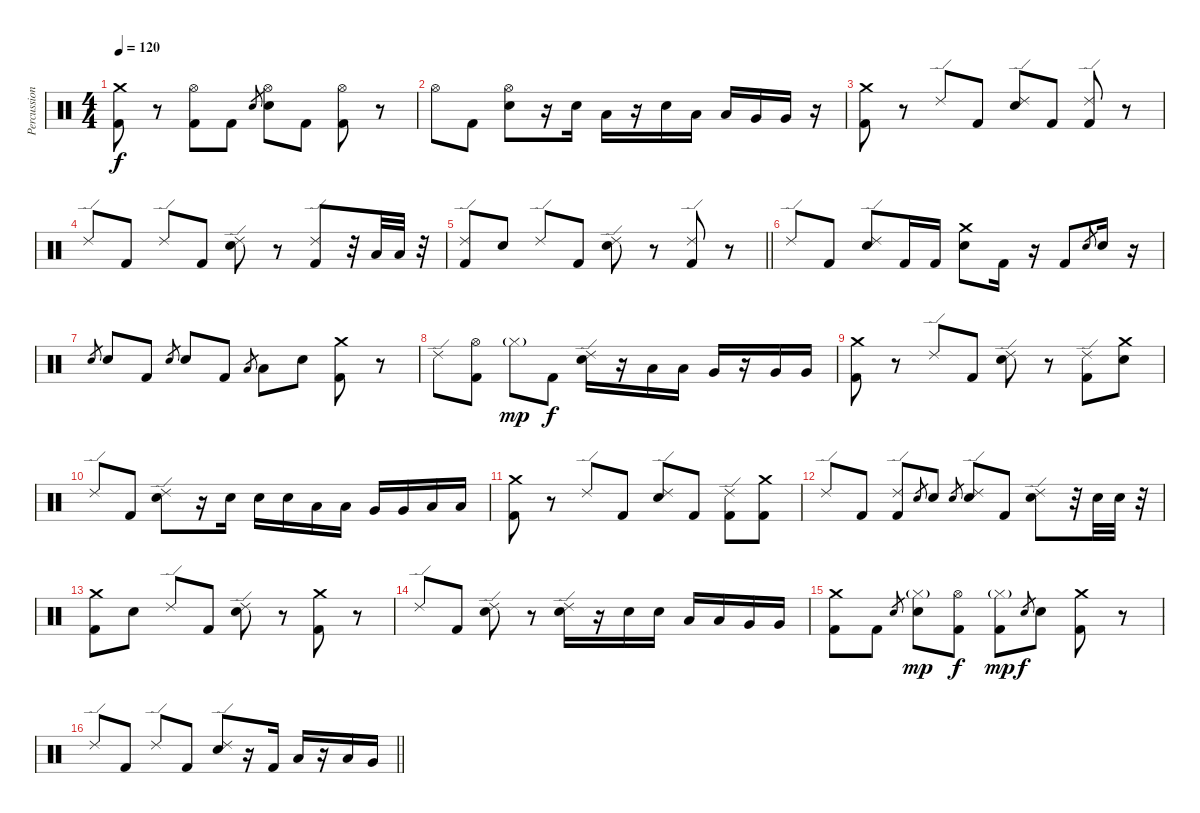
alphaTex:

\track ("Percussion" "Percussion") {instrument percussion}
\staff {score}
\articulation defaults
\ts (4 4)
\tempo 120
\clef neutral
\ks c
("Crash medium (hit)" "Kick (hit) 2").8{dy f} r.8 ("Hi-Hat (open)" "Kick (hit) 2").8 "Kick (hit) 2".8 "Electric Snare (hit)".8{gr} ("Hi-Hat (open)" "Electric Snare (hit)").8 "Kick (hit) 2".8 ("Hi-Hat (open)" "Kick (hit) 2").8 r.8 |
"Hi-Hat (open)".8 "Kick (hit) 2".8 ("Hi-Hat (open)" "Electric Snare (hit)").8 r.16 "Electric Snare (hit)".16 "Low Tom (hit)".16 r.16 "Electric Snare (hit)".16 "Low Tom (hit)".16 "Low Tom (hit)".16 "Very Low Tom (hit)".16 "Very Low Tom (hit)".16 r.16 |
("Crash medium (hit)" "Kick (hit) 2").8 r.8 "Ride (edge) 2".8 "Kick (hit) 2".8 ("Ride (edge) 2" "Electric Snare (hit)").8 "Kick (hit) 2".8 ("Ride (edge) 2" "Kick (hit) 2").8 r.8 |
"Ride (edge) 2".8 "Kick (hit) 2".8 "Ride (edge) 2".8 "Kick (hit) 2".8 ("Ride (edge) 2" "Electric Snare (hit)").8 r.8 ("Ride (edge) 2" "Kick (hit) 2").8 r.32 "Low Tom (hit)".32 "Low Tom (hit)".32 r.32 |
\barLineRight lightlight
("Ride (edge) 2" "Kick (hit) 2").8 "Electric Snare (hit)".8 "Ride (edge) 2".8 "Kick (hit) 2".8 ("Ride (edge) 2" "Electric Snare (hit)").8 r.8 ("Ride (edge) 2" "Kick (hit) 2").8 r.8 |
\section ("" "")
"Ride (edge) 2".8 "Kick (hit) 2".8 ("Ride (edge) 2" "Electric Snare (hit)").8 "Kick (hit) 2".16 "Kick (hit) 2".16 ("Crash medium (hit)" "Electric Snare (hit)").8 "Kick (hit) 2".16 r.16 "Kick (hit) 2".8 "Electric Snare (hit)".8{gr} "Electric Snare (hit)".16 r.16 |
"Electric Snare (hit)".8{gr} "Electric Snare (hit)".8 "Kick (hit) 2".8 "Electric Snare (hit)".8{gr} "Electric Snare (hit)".8 "Kick (hit) 2".8 "Low Tom (hit)".8{gr} "Low Tom (hit)".8 "Electric Snare (hit)".8 ("Crash medium (hit)" "Kick (hit) 2").8 r.8 |
"Ride (edge) 2".8 ("Hi-Hat (open)" "Kick (hit) 2").8 "Hi-Hat (closed)"{g}.8{dy mp} "Kick (hit) 2".8{dy f} ("Ride (edge) 2" "Electric Snare (hit)").16 r.16 "Low Tom (hit)".16 "Low Tom (hit)".16 "Very Low Tom (hit)".16 r.16 "Very Low Tom (hit)".16 "Very Low Tom (hit)".16 |
("Crash medium (hit)" "Kick (hit) 2").8 r.8 "Ride (edge) 2".8 "Kick (hit) 2".8 ("Ride (edge) 2" "Electric Snare (hit)").8 r.8 ("Ride (edge) 2" "Kick (hit) 2").8 ("Crash medium (hit)" "Electric Snare (hit)").8 |
"Ride (edge) 2".8 "Kick (hit) 2".8 ("Ride (edge) 2" "Electric Snare (hit)").8 r.16 "Electric Snare (hit)".16 "Electric Snare (hit)".16 "Electric Snare (hit)".16 "Low Tom (hit)".16 "Low Tom (hit)".16 "Very Low Tom (hit)".16 "Very Low Tom (hit)".16 "Low Floor Tom (hit)".16 "Low Floor Tom (hit)".16 |
("Crash medium (hit)" "Kick (hit) 2").8 r.8 "Ride (edge) 2".8 "Kick (hit) 2".8 ("Ride (edge) 2" "Electric Snare (hit)").8 "Kick (hit) 2".8 ("Ride (edge) 2" "Kick (hit) 2").8 ("Crash medium (hit)" "Kick (hit) 2").8 |
"Ride (edge) 2".8 "Kick (hit) 2".8 ("Ride (edge) 2" "Kick (hit) 2").8 "Electric Snare (hit)".8{gr} "Electric Snare (hit)".8 "Electric Snare (hit)".8{gr} ("Ride (edge) 2" "Electric Snare (hit)").8 "Kick (hit) 2".8 ("Ride (edge) 2" "Electric Snare (hit)").8 r.32 "Electric Snare (hit)".32 "Electric Snare (hit)".32 r.32 |
("Crash medium (hit)" "Kick (hit) 2").8 "Electric Snare (hit)".8 "Ride (edge) 2".8 "Kick (hit) 2".8 ("Ride (edge) 2" "Electric Snare (hit)").8 r.8 ("Crash medium (hit)" "Kick (hit) 2").8 r.8 |
"Ride (edge) 2".8 "Kick (hit) 2".8 ("Ride (edge) 2" "Electric Snare (hit)").8 r.8 ("Ride (edge) 2" "Electric Snare (hit)").16 r.16 "Electric Snare (hit)".16 "Electric Snare (hit)".16 "Low Tom (hit)".16 "Low Tom (hit)".16 "Very Low Tom (hit)".16 "Very Low Tom (hit)".16 |
("Crash medium (hit)" "Kick (hit) 2").8 "Kick (hit) 2".8 "Electric Snare (hit)".8{gr} ("Hi-Hat (closed)"{g} "Electric Snare (hit)").8{dy mp} ("Hi-Hat (open)" "Kick (hit) 2").8{dy f} ("Hi-Hat (closed)"{g} "Kick (hit) 2").8{dy mp} "Electric Snare (hit)".8{gr dy f} "Electric Snare (hit)".8 ("Crash medium (hit)" "Kick (hit) 2").8 r.8 |
\barLineRight lightlight "Ride (edge) 2".8 "Kick (hit) 2".8 "Ride (edge) 2".8 "Kick (hit) 2".8
("Ride (edge) 2" "Electric Snare (hit)").8 r.16 "Kick (hit) 2".16 "Low Tom (hit)".16 r.16 "Low Tom (hit)".16 "Very Low Tom (hit)".16
